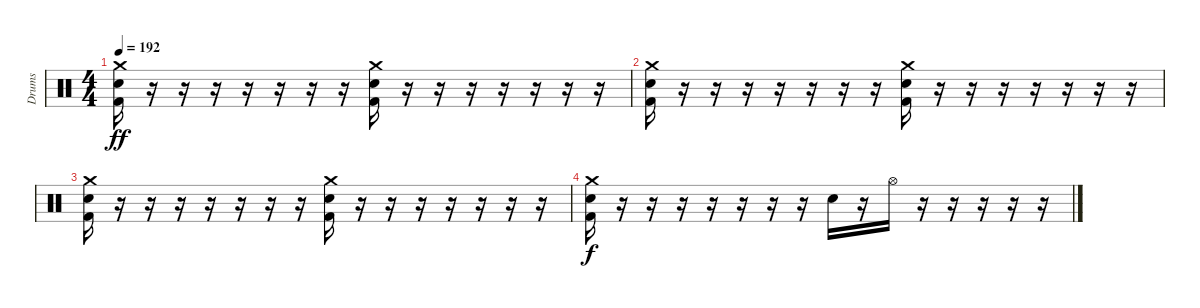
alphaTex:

\track ("Drums" "Drums") {instrument percussion}
\staff {score}
\articulation defaults
\ts (4 4)
\tempo 192
\clef neutral
\ks c
("Crash medium (hit)" "Electric Snare (hit)" "Kick (hit) 2").16{dy ff} r.16 r.16 r.16 r.16 r.16 r.16 r.16 ("Crash medium (hit)" "Electric Snare (hit)" "Kick (hit) 2").16 r.16 r.16 r.16 r.16 r.16 r.16 r.16 |
("Crash medium (hit)" "Electric Snare (hit)" "Kick (hit) 2").16 r.16 r.16 r.16 r.16 r.16 r.16 r.16 ("Crash medium (hit)" "Electric Snare (hit)" "Kick (hit) 2").16 r.16 r.16 r.16 r.16 r.16 r.16 r.16 |
("Crash medium (hit)" "Electric Snare (hit)" "Kick (hit) 2").16 r.16 r.16 r.16 r.16 r.16 r.16 r.16 ("Crash medium (hit)" "Electric Snare (hit)" "Kick (hit) 2").16 r.16 r.16 r.16 r.16 r.16 r.16 r.16 |
("Crash medium (hit)" "Electric Snare (hit)" "Kick (hit) 2").16{dy f} r.16 r.16 r.16 r.16 r.16 r.16 r.16 "Electric Snare (hit)".16 r.16 "Hi-Hat (open)".16 r.16 r.16 r.16 r.16 r.16
